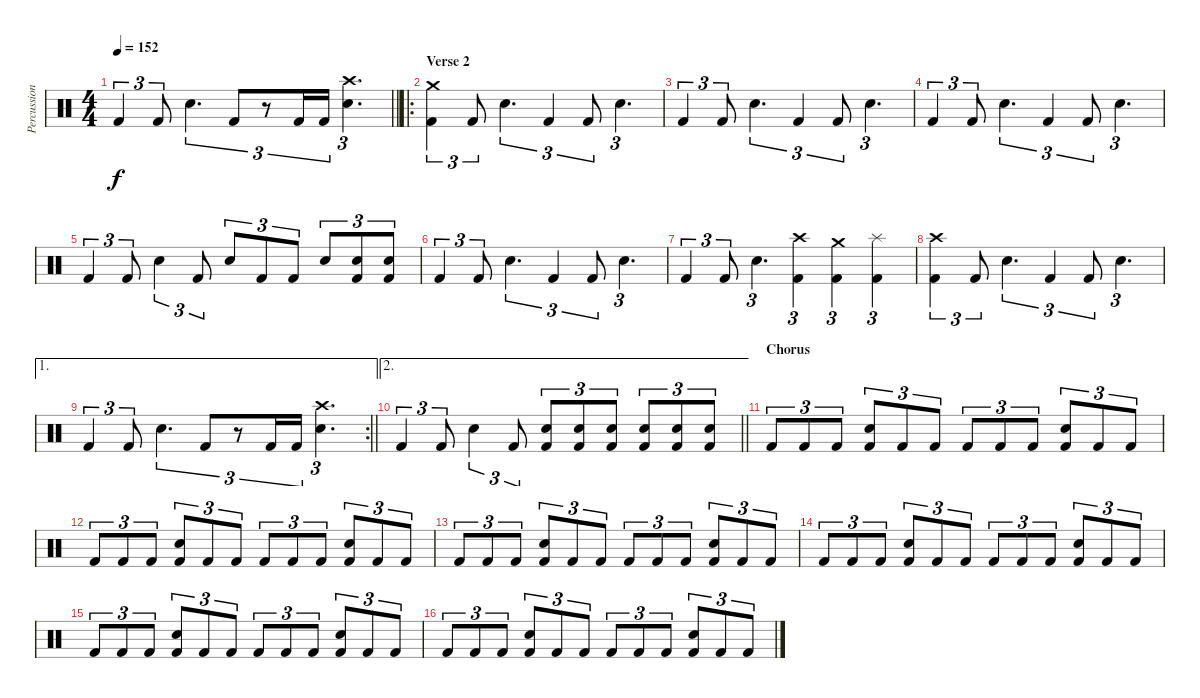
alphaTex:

\track ("Percussion" "Percussion") {instrument percussion}
\staff {score}
\articulation defaults
\ts (4 4)
\tempo 152
\clef neutral
\barLineRight lightlight
\ks c "Kick (hit) 2".4{tu (3 2) dy f} "Kick (hit) 2".8{tu (3 2)} "Electric Snare (hit)".4{d tu (3 2)} "Kick (hit) 2".8{tu (3 2)}
r.8{tu (3 2)} "Kick (hit) 2".16{tu (3 2)} "Kick (hit) 2".16{tu (3 2)} ("Electric Snare (hit)" "Crash high (hit)").4{d tu (3 2)} |
\ro
\section ("" "Verse 2")
("Kick (hit) 2" "Crash medium (hit)").4{tu (3 2)} "Kick (hit) 2".8{tu (3 2)} "Electric Snare (hit)".4{d tu (3 2)} "Kick (hit) 2".4{tu (3 2)} "Kick (hit) 2".8{tu (3 2)} "Electric Snare (hit)".4{d tu (3 2)} |
"Kick (hit) 2".4{tu (3 2)} "Kick (hit) 2".8{tu (3 2)} "Electric Snare (hit)".4{d tu (3 2)} "Kick (hit) 2".4{tu (3 2)} "Kick (hit) 2".8{tu (3 2)} "Electric Snare (hit)".4{d tu (3 2)} |
"Kick (hit) 2".4{tu (3 2)} "Kick (hit) 2".8{tu (3 2)} "Electric Snare (hit)".4{d tu (3 2)} "Kick (hit) 2".4{tu (3 2)} "Kick (hit) 2".8{tu (3 2)} "Electric Snare (hit)".4{d tu (3 2)} |
"Kick (hit) 2".4{tu (3 2)} "Kick (hit) 2".8{tu (3 2)} "Electric Snare (hit)".4{tu (3 2)} "Kick (hit) 2".8{tu (3 2)} "Electric Snare (hit)".8{tu (3 2)} "Kick (hit) 2".8{tu (3 2)} "Kick (hit) 2".8{tu (3 2)} "Electric Snare (hit)".8{tu (3 2)} ("Kick (hit) 2" "Electric Snare (hit)").8{tu (3 2)} ("Kick (hit) 2" "Electric Snare (hit)").8{tu (3 2)} |
"Kick (hit) 2".4{tu (3 2)} "Kick (hit) 2".8{tu (3 2)} "Electric Snare (hit)".4{d tu (3 2)} "Kick (hit) 2".4{tu (3 2)} "Kick (hit) 2".8{tu (3 2)} "Electric Snare (hit)".4{d tu (3 2)} |
"Kick (hit) 2".4{tu (3 2)} "Kick (hit) 2".8{tu (3 2)} "Electric Snare (hit)".4{d tu (3 2)} ("Kick (hit) 2" "Crash high (hit)").4{tu (3 2)} ("Kick (hit) 2" "Crash medium (hit)").4{tu (3 2)} ("Kick (hit) 2" "Splash (hit)").4{tu (3 2)} |
("Kick (hit) 2" "Crash high (hit)").4{tu (3 2)} "Kick (hit) 2".8{tu (3 2)} "Electric Snare (hit)".4{d tu (3 2)} "Kick (hit) 2".4{tu (3 2)} "Kick (hit) 2".8{tu (3 2)} "Electric Snare (hit)".4{d tu (3 2)} |
\ae 1
\rc 2
\barLineRight lightlight "Kick (hit) 2".4{tu (3 2)} "Kick (hit) 2".8{tu (3 2)} "Electric Snare (hit)".4{d tu (3 2)} "Kick (hit) 2".8{tu (3 2)}
r.8{tu (3 2)} "Kick (hit) 2".16{tu (3 2)} "Kick (hit) 2".16{tu (3 2)} ("Electric Snare (hit)" "Crash high (hit)").4{d tu (3 2)} |
\ae 2
\barLineRight lightlight "Kick (hit) 2".4{tu (3 2)} "Kick (hit) 2".8{tu (3 2)} "Electric Snare (hit)".4{tu (3 2)} "Kick (hit) 2".8{tu (3 2)}
("Kick (hit) 2" "Electric Snare (hit)").8{tu (3 2)} ("Kick (hit) 2" "Electric Snare (hit)").8{tu (3 2)} ("Kick (hit) 2" "Electric Snare (hit)").8{tu (3 2)} ("Kick (hit) 2" "Electric Snare (hit)").8{tu (3 2)} ("Kick (hit) 2" "Electric Snare (hit)").8{tu (3 2)} ("Kick (hit) 2" "Electric Snare (hit)").8{tu (3 2)} |
\section ("" "Chorus")
"Kick (hit) 2".8{tu (3 2)} "Kick (hit) 2".8{tu (3 2)} "Kick (hit) 2".8{tu (3 2)} ("Kick (hit) 2" "Electric Snare (hit)").8{tu (3 2)} "Kick (hit) 2".8{tu (3 2)} "Kick (hit) 2".8{tu (3 2)} "Kick (hit) 2".8{tu (3 2)} "Kick (hit) 2".8{tu (3 2)} "Kick (hit) 2".8{tu (3 2)} ("Kick (hit) 2" "Electric Snare (hit)").8{tu (3 2)} "Kick (hit) 2".8{tu (3 2)} "Kick (hit) 2".8{tu (3 2)} |
"Kick (hit) 2".8{tu (3 2)} "Kick (hit) 2".8{tu (3 2)} "Kick (hit) 2".8{tu (3 2)} ("Kick (hit) 2" "Electric Snare (hit)").8{tu (3 2)} "Kick (hit) 2".8{tu (3 2)} "Kick (hit) 2".8{tu (3 2)} "Kick (hit) 2".8{tu (3 2)} "Kick (hit) 2".8{tu (3 2)} "Kick (hit) 2".8{tu (3 2)} ("Kick (hit) 2" "Electric Snare (hit)").8{tu (3 2)} "Kick (hit) 2".8{tu (3 2)} "Kick (hit) 2".8{tu (3 2)} |
"Kick (hit) 2".8{tu (3 2)} "Kick (hit) 2".8{tu (3 2)} "Kick (hit) 2".8{tu (3 2)} ("Kick (hit) 2" "Electric Snare (hit)").8{tu (3 2)} "Kick (hit) 2".8{tu (3 2)} "Kick (hit) 2".8{tu (3 2)} "Kick (hit) 2".8{tu (3 2)} "Kick (hit) 2".8{tu (3 2)} "Kick (hit) 2".8{tu (3 2)} ("Kick (hit) 2" "Electric Snare (hit)").8{tu (3 2)} "Kick (hit) 2".8{tu (3 2)} "Kick (hit) 2".8{tu (3 2)} |
"Kick (hit) 2".8{tu (3 2)} "Kick (hit) 2".8{tu (3 2)} "Kick (hit) 2".8{tu (3 2)} ("Kick (hit) 2" "Electric Snare (hit)").8{tu (3 2)} "Kick (hit) 2".8{tu (3 2)} "Kick (hit) 2".8{tu (3 2)} "Kick (hit) 2".8{tu (3 2)} "Kick (hit) 2".8{tu (3 2)} "Kick (hit) 2".8{tu (3 2)} ("Kick (hit) 2" "Electric Snare (hit)").8{tu (3 2)} "Kick (hit) 2".8{tu (3 2)} "Kick (hit) 2".8{tu (3 2)} |
"Kick (hit) 2".8{tu (3 2)} "Kick (hit) 2".8{tu (3 2)} "Kick (hit) 2".8{tu (3 2)} ("Kick (hit) 2" "Electric Snare (hit)").8{tu (3 2)} "Kick (hit) 2".8{tu (3 2)} "Kick (hit) 2".8{tu (3 2)} "Kick (hit) 2".8{tu (3 2)} "Kick (hit) 2".8{tu (3 2)} "Kick (hit) 2".8{tu (3 2)} ("Kick (hit) 2" "Electric Snare (hit)").8{tu (3 2)} "Kick (hit) 2".8{tu (3 2)} "Kick (hit) 2".8{tu (3 2)} |
"Kick (hit) 2".8{tu (3 2)} "Kick (hit) 2".8{tu (3 2)} "Kick (hit) 2".8{tu (3 2)} ("Kick (hit) 2" "Electric Snare (hit)").8{tu (3 2)} "Kick (hit) 2".8{tu (3 2)} "Kick (hit) 2".8{tu (3 2)} "Kick (hit) 2".8{tu (3 2)} "Kick (hit) 2".8{tu (3 2)} "Kick (hit) 2".8{tu (3 2)} ("Kick (hit) 2" "Electric Snare (hit)").8{tu (3 2)} "Kick (hit) 2".8{tu (3 2)} "Kick (hit) 2".8{tu (3 2)}
